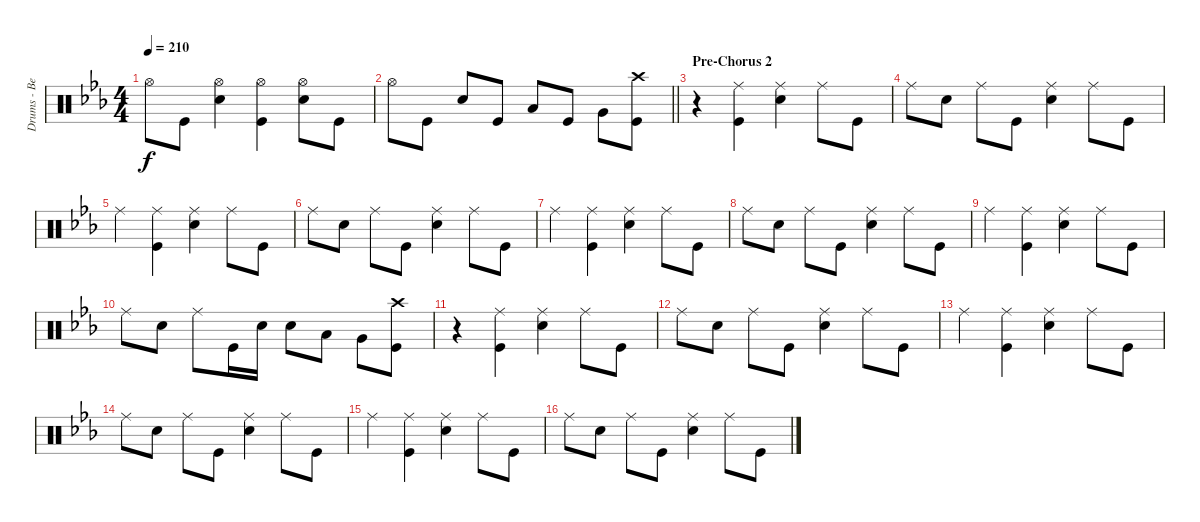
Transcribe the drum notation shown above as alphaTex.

\track ("Drums - Ben Johnston" "Drums - Be") {instrument percussion}
\staff {score}
\articulation defaults
\ts (4 4)
\tempo 210
\clef neutral
\ks cminor "Hi-Hat (open)".8{dy f} "Kick (hit)".8
("Hi-Hat (open)" "Snare (hit) 2").4 ("Hi-Hat (open)" "Kick (hit)").4 ("Hi-Hat (open)" "Snare (hit) 2").8 "Kick (hit)".8 |
\barLineRight lightlight "Hi-Hat (open)".8 "Kick (hit)".8 "Snare (hit) 2".8 "Kick (hit)".8 "Low Tom (hit)".8 "Kick (hit)".8 "Very Low Tom (hit)".8
("Crash high (hit)" "Kick (hit)").8 |
\section ("" "Pre-Chorus 2")
r.4 ("Ride (middle)" "Kick (hit)").4 ("Ride (middle)" "Snare (hit) 2").4 "Ride (middle)".8 "Kick (hit)".8 |
"Ride (middle)".8 "Snare (hit) 2".8 "Ride (middle)".8 "Kick (hit)".8 ("Ride (middle)" "Snare (hit) 2").4 "Ride (middle)".8 "Kick (hit)".8 |
"Ride (middle)".4 ("Ride (middle)" "Kick (hit)").4 ("Ride (middle)" "Snare (hit) 2").4 "Ride (middle)".8 "Kick (hit)".8 |
"Ride (middle)".8 "Snare (hit) 2".8 "Ride (middle)".8 "Kick (hit)".8 ("Ride (middle)" "Snare (hit) 2").4 "Ride (middle)".8 "Kick (hit)".8 |
"Ride (middle)".4 ("Ride (middle)" "Kick (hit)").4 ("Ride (middle)" "Snare (hit) 2").4 "Ride (middle)".8 "Kick (hit)".8 |
"Ride (middle)".8 "Snare (hit) 2".8 "Ride (middle)".8 "Kick (hit)".8 ("Ride (middle)" "Snare (hit) 2").4 "Ride (middle)".8 "Kick (hit)".8 |
"Ride (middle)".4 ("Ride (middle)" "Kick (hit)").4 ("Ride (middle)" "Snare (hit) 2").4 "Ride (middle)".8 "Kick (hit)".8 |
"Ride (middle)".8 "Snare (hit) 2".8 "Ride (middle)".8 "Kick (hit)".16 "Snare (hit) 2".16 "Snare (hit) 2".8 "Low Tom (hit)".8 "Very Low Tom (hit)".8 ("Crash high (hit)" "Kick (hit)").8 |
r.4 ("Ride (middle)" "Kick (hit)").4 ("Ride (middle)" "Snare (hit) 2").4 "Ride (middle)".8 "Kick (hit)".8 |
"Ride (middle)".8 "Snare (hit) 2".8 "Ride (middle)".8 "Kick (hit)".8 ("Ride (middle)" "Snare (hit) 2").4 "Ride (middle)".8 "Kick (hit)".8 |
"Ride (middle)".4 ("Ride (middle)" "Kick (hit)").4 ("Ride (middle)" "Snare (hit) 2").4 "Ride (middle)".8 "Kick (hit)".8 |
"Ride (middle)".8 "Snare (hit) 2".8 "Ride (middle)".8 "Kick (hit)".8 ("Ride (middle)" "Snare (hit) 2").4 "Ride (middle)".8 "Kick (hit)".8 |
"Ride (middle)".4 ("Ride (middle)" "Kick (hit)").4 ("Ride (middle)" "Snare (hit) 2").4 "Ride (middle)".8 "Kick (hit)".8 |
"Ride (middle)".8 "Snare (hit) 2".8 "Ride (middle)".8 "Kick (hit)".8 ("Ride (middle)" "Snare (hit) 2").4 "Ride (middle)".8 "Kick (hit)".8
